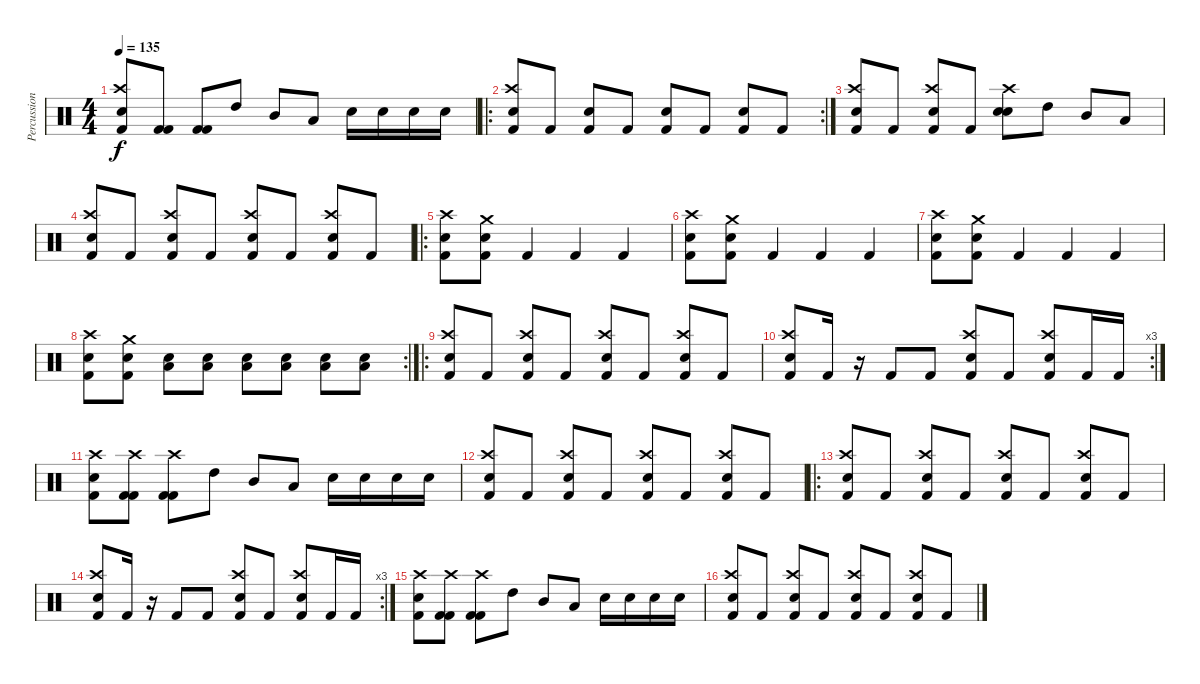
\track ("Percussions" "Percussion") {instrument percussion}
\staff {score}
\articulation defaults
\ts (4 4)
\tempo 135
\clef neutral
\ks c
("Kick (hit) 2" "Crash high (hit)" "Electric Snare (hit)").8{dy f} ("Kick (hit) 2" "Kick (hit) 2").8 ("Kick (hit) 2" "Kick (hit) 2").8 "High Tom (hit)".8 "Mid Tom (hit)".8 "Low Tom (hit)".8 "Electric Snare (hit)".16 "Electric Snare (hit)".16 "Electric Snare (hit)".16 "Electric Snare (hit)".16 |
\ro
\rc 2
("Crash high (hit)" "Kick (hit) 2" "Electric Snare (hit)").8 "Kick (hit) 2".8 ("Electric Snare (hit)" "Kick (hit) 2").8 "Kick (hit) 2".8 ("Kick (hit) 2" "Electric Snare (hit)").8 "Kick (hit) 2".8 ("Electric Snare (hit)" "Kick (hit) 2").8 "Kick (hit) 2".8 |
("Crash high (hit)" "Kick (hit) 2" "Electric Snare (hit)").8 "Kick (hit) 2".8 ("Electric Snare (hit)" "Crash high (hit)" "Kick (hit) 2").8 "Kick (hit) 2".8 ("Electric Snare (hit)" "Crash high (hit)" "Electric Snare (hit)").8 "High Tom (hit)".8 "Mid Tom (hit)".8 "Low Tom (hit)".8 |
("Crash high (hit)" "Kick (hit) 2" "Electric Snare (hit)").8 "Kick (hit) 2".8 ("Crash high (hit)" "Electric Snare (hit)" "Kick (hit) 2").8 "Kick (hit) 2".8 ("Crash high (hit)" "Kick (hit) 2" "Electric Snare (hit)").8 "Kick (hit) 2".8 ("Crash high (hit)" "Electric Snare (hit)" "Kick (hit) 2").8 "Kick (hit) 2".8 |
\ro
("Electric Snare (hit)" "Kick (hit) 2" "Crash high (hit)").8 ("Electric Snare (hit)" "Kick (hit) 2" "Crash medium (hit)").8 "Kick (hit) 2".4 "Kick (hit) 2".4 "Kick (hit) 2".4 |
("Electric Snare (hit)" "Kick (hit) 2" "Crash high (hit)").8 ("Electric Snare (hit)" "Kick (hit) 2" "Crash medium (hit)").8 "Kick (hit) 2".4 "Kick (hit) 2".4 "Kick (hit) 2".4 |
("Electric Snare (hit)" "Kick (hit) 2" "Crash high (hit)").8 ("Electric Snare (hit)" "Kick (hit) 2" "Crash medium (hit)").8 "Kick (hit) 2".4 "Kick (hit) 2".4 "Kick (hit) 2".4 |
\rc 2
("Electric Snare (hit)" "Kick (hit) 2" "Crash high (hit)").8 ("Electric Snare (hit)" "Kick (hit) 2" "Crash medium (hit)").8 ("Low Tom (hit)" "Electric Snare (hit)").8 ("Low Tom (hit)" "Electric Snare (hit)").8 ("Low Tom (hit)" "Electric Snare (hit)").8 ("Low Tom (hit)" "Electric Snare (hit)").8 ("Low Tom (hit)" "Electric Snare (hit)").8 ("Low Tom (hit)" "Electric Snare (hit)").8 |
\ro
("Crash high (hit)" "Kick (hit) 2" "Electric Snare (hit)").8 "Kick (hit) 2".8 ("Crash high (hit)" "Electric Snare (hit)" "Kick (hit) 2").8 "Kick (hit) 2".8 ("Crash high (hit)" "Kick (hit) 2" "Electric Snare (hit)").8 "Kick (hit) 2".8 ("Crash high (hit)" "Electric Snare (hit)" "Kick (hit) 2").8 "Kick (hit) 2".8 |
\rc 3
("Electric Snare (hit)" "Crash high (hit)" "Kick (hit) 2").8 "Kick (hit) 2".16 r.16 "Kick (hit) 2".8 "Kick (hit) 2".8 ("Crash high (hit)" "Electric Snare (hit)" "Kick (hit) 2").8 "Kick (hit) 2".8 ("Crash high (hit)" "Electric Snare (hit)" "Kick (hit) 2").8 "Kick (hit) 2".16 "Kick (hit) 2".16 |
("Kick (hit) 2" "Crash high (hit)" "Electric Snare (hit)").8 ("Kick (hit) 2" "Crash high (hit)" "Kick (hit) 2").8 ("Kick (hit) 2" "Crash high (hit)" "Kick (hit) 2").8 "High Tom (hit)".8 "Mid Tom (hit)".8 "Low Tom (hit)".8 "Electric Snare (hit)".16 "Electric Snare (hit)".16 "Electric Snare (hit)".16 "Electric Snare (hit)".16 |
("Crash high (hit)" "Kick (hit) 2" "Electric Snare (hit)").8 "Kick (hit) 2".8 ("Crash high (hit)" "Electric Snare (hit)" "Kick (hit) 2").8 "Kick (hit) 2".8 ("Crash high (hit)" "Kick (hit) 2" "Electric Snare (hit)").8 "Kick (hit) 2".8 ("Crash high (hit)" "Electric Snare (hit)" "Kick (hit) 2").8 "Kick (hit) 2".8 |
\ro
("Crash high (hit)" "Kick (hit) 2" "Electric Snare (hit)").8 "Kick (hit) 2".8 ("Crash high (hit)" "Electric Snare (hit)" "Kick (hit) 2").8 "Kick (hit) 2".8 ("Crash high (hit)" "Kick (hit) 2" "Electric Snare (hit)").8 "Kick (hit) 2".8 ("Crash high (hit)" "Electric Snare (hit)" "Kick (hit) 2").8 "Kick (hit) 2".8 |
\rc 3
("Electric Snare (hit)" "Crash high (hit)" "Kick (hit) 2").8 "Kick (hit) 2".16 r.16 "Kick (hit) 2".8 "Kick (hit) 2".8 ("Crash high (hit)" "Electric Snare (hit)" "Kick (hit) 2").8 "Kick (hit) 2".8 ("Crash high (hit)" "Electric Snare (hit)" "Kick (hit) 2").8 "Kick (hit) 2".16 "Kick (hit) 2".16 |
("Kick (hit) 2" "Crash high (hit)" "Electric Snare (hit)").8 ("Kick (hit) 2" "Crash high (hit)" "Kick (hit) 2").8 ("Kick (hit) 2" "Crash high (hit)" "Kick (hit) 2").8 "High Tom (hit)".8 "Mid Tom (hit)".8 "Low Tom (hit)".8 "Electric Snare (hit)".16 "Electric Snare (hit)".16 "Electric Snare (hit)".16 "Electric Snare (hit)".16 |
("Crash high (hit)" "Kick (hit) 2" "Electric Snare (hit)").8 "Kick (hit) 2".8 ("Crash high (hit)" "Electric Snare (hit)" "Kick (hit) 2").8 "Kick (hit) 2".8 ("Crash high (hit)" "Kick (hit) 2" "Electric Snare (hit)").8 "Kick (hit) 2".8 ("Crash high (hit)" "Electric Snare (hit)" "Kick (hit) 2").8 "Kick (hit) 2".8
